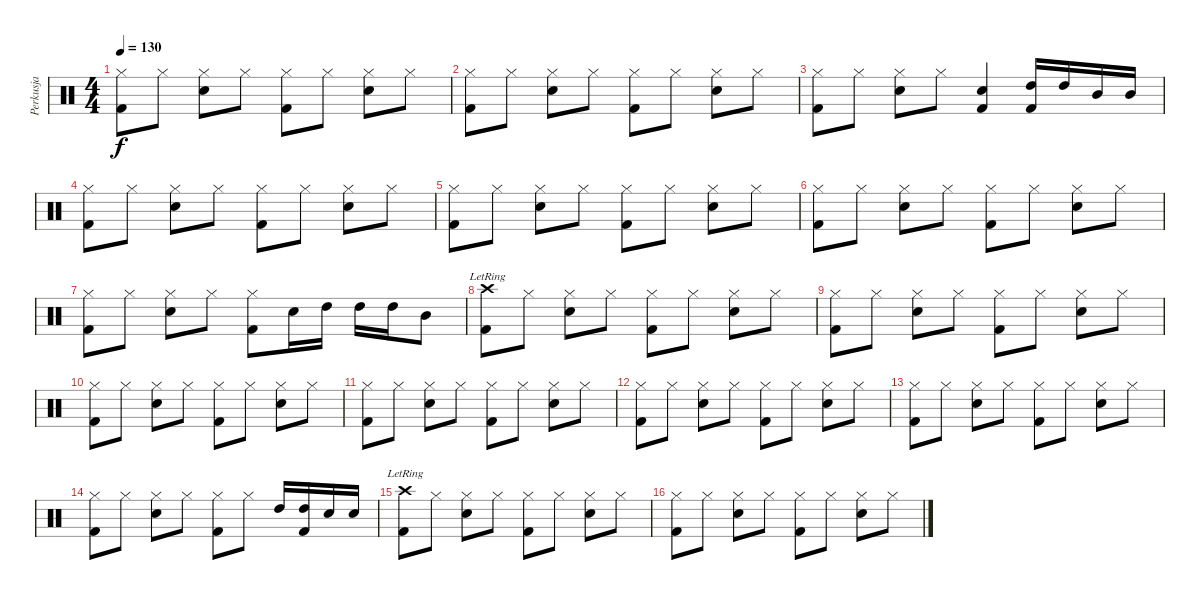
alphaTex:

\track ("Perkusja" "Perkusja") {instrument percussion}
\staff {score}
\articulation defaults
\ts (4 4)
\tempo 130
\clef neutral
\ks c
("Kick (hit) 2" "Hi-Hat (closed)").8{dy f} "Hi-Hat (closed)".8 ("Snare (hit) 2" "Hi-Hat (closed)").8 "Hi-Hat (closed)".8 ("Kick (hit) 2" "Hi-Hat (closed)").8 "Hi-Hat (closed)".8 ("Snare (hit) 2" "Hi-Hat (closed)").8 "Hi-Hat (closed)".8 |
("Kick (hit) 2" "Hi-Hat (closed)").8 "Hi-Hat (closed)".8 ("Snare (hit) 2" "Hi-Hat (closed)").8 "Hi-Hat (closed)".8 ("Kick (hit) 2" "Hi-Hat (closed)").8 "Hi-Hat (closed)".8 ("Snare (hit) 2" "Hi-Hat (closed)").8 "Hi-Hat (closed)".8 |
("Kick (hit) 2" "Hi-Hat (closed)").8 "Hi-Hat (closed)".8 ("Snare (hit) 2" "Hi-Hat (closed)").8 "Hi-Hat (closed)".8 ("Kick (hit) 2" "Snare (hit) 2").4 ("Kick (hit) 2" "High Tom (hit)").16 "High Tom (hit)".16 "Mid Tom (hit)".16 "Mid Tom (hit)".16 |
("Kick (hit) 2" "Hi-Hat (closed)").8 "Hi-Hat (closed)".8 ("Snare (hit) 2" "Hi-Hat (closed)").8 "Hi-Hat (closed)".8 ("Kick (hit) 2" "Hi-Hat (closed)").8 "Hi-Hat (closed)".8 ("Snare (hit) 2" "Hi-Hat (closed)").8 "Hi-Hat (closed)".8 |
("Kick (hit) 2" "Hi-Hat (closed)").8 "Hi-Hat (closed)".8 ("Snare (hit) 2" "Hi-Hat (closed)").8 "Hi-Hat (closed)".8 ("Kick (hit) 2" "Hi-Hat (closed)").8 "Hi-Hat (closed)".8 ("Snare (hit) 2" "Hi-Hat (closed)").8 "Hi-Hat (closed)".8 |
("Kick (hit) 2" "Hi-Hat (closed)").8 "Hi-Hat (closed)".8 ("Snare (hit) 2" "Hi-Hat (closed)").8 "Hi-Hat (closed)".8 ("Kick (hit) 2" "Hi-Hat (closed)").8 "Hi-Hat (closed)".8 ("Snare (hit) 2" "Hi-Hat (closed)").8 "Hi-Hat (closed)".8 |
("Kick (hit) 2" "Hi-Hat (closed)").8 "Hi-Hat (closed)".8 ("Snare (hit) 2" "Hi-Hat (closed)").8 "Hi-Hat (closed)".8 ("Kick (hit) 2" "Hi-Hat (closed)").8 "Snare (hit) 2".16 "High Tom (hit)".16 "High Tom (hit)".16 "High Tom (hit)".16 "Mid Tom (hit)".8 |
("Kick (hit) 2" "Crash high (hit)"{lr}).8 "Hi-Hat (closed)".8 ("Snare (hit) 2" "Hi-Hat (closed)").8 "Hi-Hat (closed)".8 ("Kick (hit) 2" "Hi-Hat (closed)").8 "Hi-Hat (closed)".8 ("Snare (hit) 2" "Hi-Hat (closed)").8 "Hi-Hat (closed)".8 |
("Kick (hit) 2" "Hi-Hat (closed)").8 "Hi-Hat (closed)".8 ("Snare (hit) 2" "Hi-Hat (closed)").8 "Hi-Hat (closed)".8 ("Kick (hit) 2" "Hi-Hat (closed)").8 "Hi-Hat (closed)".8 ("Snare (hit) 2" "Hi-Hat (closed)").8 "Hi-Hat (closed)".8 |
("Kick (hit) 2" "Hi-Hat (closed)").8 "Hi-Hat (closed)".8 ("Snare (hit) 2" "Hi-Hat (closed)").8 "Hi-Hat (closed)".8 ("Kick (hit) 2" "Hi-Hat (closed)").8 "Hi-Hat (closed)".8 ("Snare (hit) 2" "Hi-Hat (closed)").8 "Hi-Hat (closed)".8 |
("Kick (hit) 2" "Hi-Hat (closed)").8 "Hi-Hat (closed)".8 ("Snare (hit) 2" "Hi-Hat (closed)").8 "Hi-Hat (closed)".8 ("Kick (hit) 2" "Hi-Hat (closed)").8 "Hi-Hat (closed)".8 ("Snare (hit) 2" "Hi-Hat (closed)").8 "Hi-Hat (closed)".8 |
("Kick (hit) 2" "Hi-Hat (closed)").8 "Hi-Hat (closed)".8 ("Snare (hit) 2" "Hi-Hat (closed)").8 "Hi-Hat (closed)".8 ("Kick (hit) 2" "Hi-Hat (closed)").8 "Hi-Hat (closed)".8 ("Snare (hit) 2" "Hi-Hat (closed)").8 "Hi-Hat (closed)".8 |
("Kick (hit) 2" "Hi-Hat (closed)").8 "Hi-Hat (closed)".8 ("Snare (hit) 2" "Hi-Hat (closed)").8 "Hi-Hat (closed)".8 ("Kick (hit) 2" "Hi-Hat (closed)").8 "Hi-Hat (closed)".8 ("Snare (hit) 2" "Hi-Hat (closed)").8 "Hi-Hat (closed)".8 |
("Kick (hit) 2" "Hi-Hat (closed)").8 "Hi-Hat (closed)".8 ("Snare (hit) 2" "Hi-Hat (closed)").8 "Hi-Hat (closed)".8 ("Kick (hit) 2" "Hi-Hat (closed)").8 "Hi-Hat (closed)".8 "High Tom (hit)".16 ("High Tom (hit)" "Kick (hit) 2").16 "Snare (hit) 2".16 "Snare (hit) 2".16 |
("Kick (hit) 2" "Crash high (hit)"{lr}).8 "Hi-Hat (closed)".8 ("Snare (hit) 2" "Hi-Hat (closed)").8 "Hi-Hat (closed)".8 ("Kick (hit) 2" "Hi-Hat (closed)").8 "Hi-Hat (closed)".8 ("Snare (hit) 2" "Hi-Hat (closed)").8 "Hi-Hat (closed)".8 |
("Kick (hit) 2" "Hi-Hat (closed)").8 "Hi-Hat (closed)".8 ("Snare (hit) 2" "Hi-Hat (closed)").8 "Hi-Hat (closed)".8 ("Kick (hit) 2" "Hi-Hat (closed)").8 "Hi-Hat (closed)".8 ("Snare (hit) 2" "Hi-Hat (closed)").8 "Hi-Hat (closed)".8
